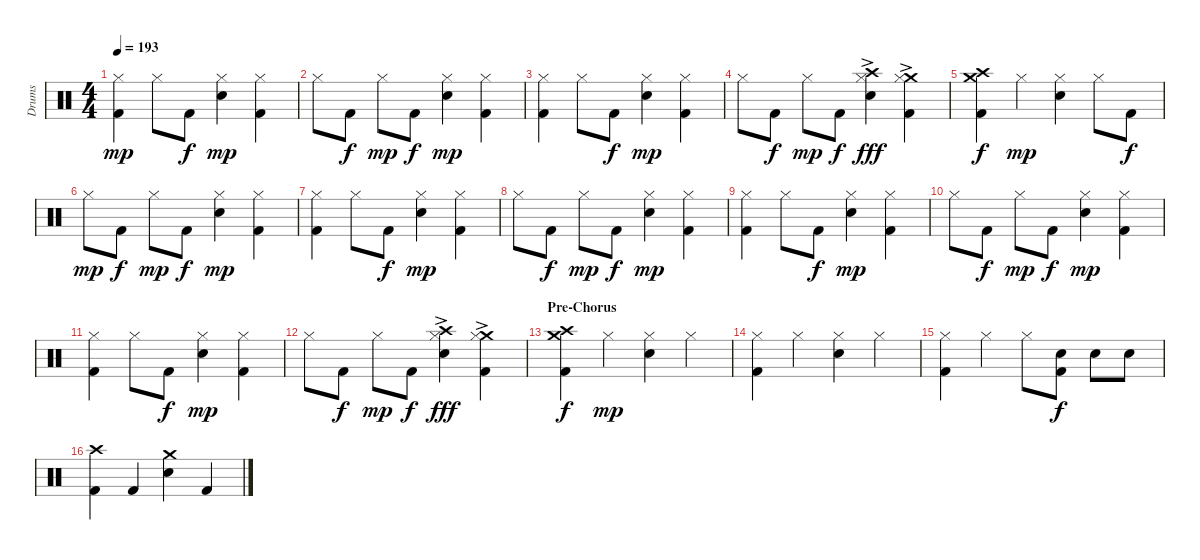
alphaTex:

\track ("Drums" "Drums") {instrument percussion}
\staff {score}
\articulation defaults
\ts (4 4)
\tempo 193
\clef neutral
\ks c
("Hi-Hat (closed)" "Kick (hit) 2").4{dy mp} "Hi-Hat (closed)".8 "Kick (hit) 2".8{dy f} ("Hi-Hat (closed)" "Snare (hit) 2").4{dy mp} ("Hi-Hat (closed)" "Kick (hit) 2").4 |
"Hi-Hat (closed)".8 "Kick (hit) 2".8{dy f} "Hi-Hat (closed)".8{dy mp} "Kick (hit) 2".8{dy f} ("Hi-Hat (closed)" "Snare (hit) 2").4{dy mp} ("Hi-Hat (closed)" "Kick (hit) 2").4 |
("Hi-Hat (closed)" "Kick (hit) 2").4 "Hi-Hat (closed)".8 "Kick (hit) 2".8{dy f} ("Hi-Hat (closed)" "Snare (hit) 2").4{dy mp} ("Hi-Hat (closed)" "Kick (hit) 2").4 |
"Hi-Hat (closed)".8 "Kick (hit) 2".8{dy f} "Hi-Hat (closed)".8{dy mp} "Kick (hit) 2".8{dy f} ("Crash high (hit)" "Hi-Hat (closed)" "Snare (hit) 2"{ac}).4{dy fff} ("Crash medium (hit)" "Hi-Hat (closed)" "Kick (hit) 2"{ac}).4 |
("Crash medium (hit)" "Crash high (hit)" "Kick (hit) 2").4{dy f} "Hi-Hat (closed)".4{dy mp} ("Hi-Hat (closed)" "Snare (hit) 2").4 "Hi-Hat (closed)".8 "Kick (hit) 2".8{dy f} |
"Hi-Hat (closed)".8{dy mp} "Kick (hit) 2".8{dy f} "Hi-Hat (closed)".8{dy mp} "Kick (hit) 2".8{dy f} ("Hi-Hat (closed)" "Snare (hit) 2").4{dy mp} ("Hi-Hat (closed)" "Kick (hit) 2").4 |
("Hi-Hat (closed)" "Kick (hit) 2").4 "Hi-Hat (closed)".8 "Kick (hit) 2".8{dy f} ("Hi-Hat (closed)" "Snare (hit) 2").4{dy mp} ("Hi-Hat (closed)" "Kick (hit) 2").4 |
"Hi-Hat (closed)".8 "Kick (hit) 2".8{dy f} "Hi-Hat (closed)".8{dy mp} "Kick (hit) 2".8{dy f} ("Hi-Hat (closed)" "Snare (hit) 2").4{dy mp} ("Hi-Hat (closed)" "Kick (hit) 2").4 |
("Hi-Hat (closed)" "Kick (hit) 2").4 "Hi-Hat (closed)".8 "Kick (hit) 2".8{dy f} ("Hi-Hat (closed)" "Snare (hit) 2").4{dy mp} ("Hi-Hat (closed)" "Kick (hit) 2").4 |
"Hi-Hat (closed)".8 "Kick (hit) 2".8{dy f} "Hi-Hat (closed)".8{dy mp} "Kick (hit) 2".8{dy f} ("Hi-Hat (closed)" "Snare (hit) 2").4{dy mp} ("Hi-Hat (closed)" "Kick (hit) 2").4 |
("Hi-Hat (closed)" "Kick (hit) 2").4 "Hi-Hat (closed)".8 "Kick (hit) 2".8{dy f} ("Hi-Hat (closed)" "Snare (hit) 2").4{dy mp} ("Hi-Hat (closed)" "Kick (hit) 2").4 |
"Hi-Hat (closed)".8 "Kick (hit) 2".8{dy f} "Hi-Hat (closed)".8{dy mp} "Kick (hit) 2".8{dy f} ("Crash high (hit)" "Hi-Hat (closed)" "Snare (hit) 2"{ac}).4{dy fff} ("Crash medium (hit)" "Hi-Hat (closed)" "Kick (hit) 2"{ac}).4 |
\section ("" "Pre-Chorus")
("Crash medium (hit)" "Crash high (hit)" "Kick (hit) 2").4{dy f} "Hi-Hat (closed)".4{dy mp} ("Hi-Hat (closed)" "Snare (hit) 2").4 "Hi-Hat (closed)".4 |
("Hi-Hat (closed)" "Kick (hit) 2").4 "Hi-Hat (closed)".4 ("Hi-Hat (closed)" "Snare (hit) 2").4 "Hi-Hat (closed)".4 |
("Hi-Hat (closed)" "Kick (hit) 2").4 "Hi-Hat (closed)".4 "Hi-Hat (closed)".8 ("Snare (hit) 2" "Kick (hit) 2").8{dy f} "Snare (hit) 2".8 "Snare (hit) 2".8 |
("Crash high (hit)" "Kick (hit) 2").4 "Kick (hit) 2".4 ("Crash medium (hit)" "Snare (hit) 2").4 "Kick (hit) 2".4
